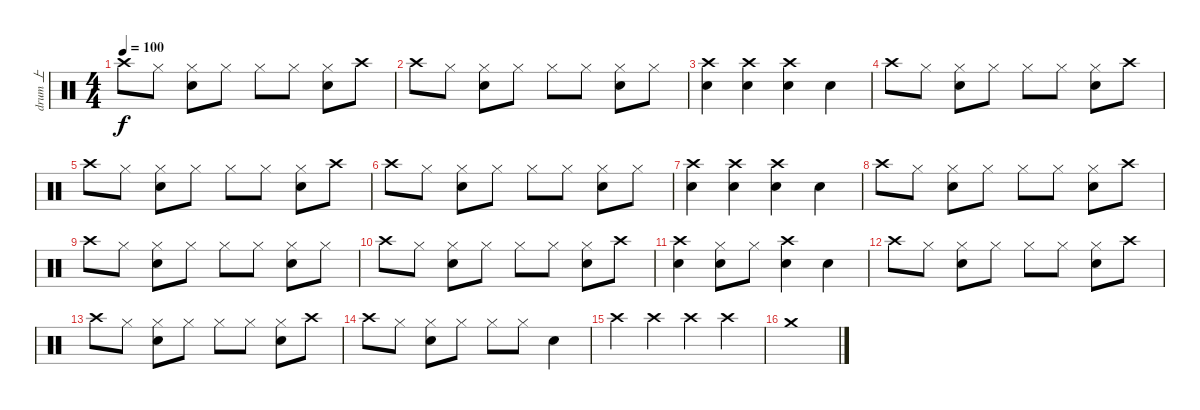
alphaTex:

\track ("drum 上" "drum 上") {instrument percussion}
\staff {score}
\articulation defaults
\ts (4 4)
\tempo 100
\clef neutral
\ks c "Crash high (hit)".8{dy f} "Hi-Hat (closed)".8
("Hi-Hat (closed)" "Snare (hit) 2").8 "Hi-Hat (closed)".8 "Hi-Hat (closed)".8 "Hi-Hat (closed)".8 ("Hi-Hat (closed)" "Snare (hit) 2").8 "Crash high (hit)".8 |
"Crash high (hit)".8 "Hi-Hat (closed)".8 ("Hi-Hat (closed)" "Snare (hit) 2").8 "Hi-Hat (closed)".8 "Hi-Hat (closed)".8 "Hi-Hat (closed)".8 ("Hi-Hat (closed)" "Snare (hit) 2").8 "Hi-Hat (closed)".8 |
("Crash high (hit)" "Snare (hit) 2").4 ("Crash high (hit)" "Snare (hit) 2").4 ("Crash high (hit)" "Snare (hit) 2").4 "Snare (hit) 2".4 |
"Crash high (hit)".8 "Hi-Hat (closed)".8 ("Hi-Hat (closed)" "Snare (hit) 2").8 "Hi-Hat (closed)".8 "Hi-Hat (closed)".8 "Hi-Hat (closed)".8 ("Hi-Hat (closed)" "Snare (hit) 2").8 "Crash high (hit)".8 |
"Crash high (hit)".8 "Hi-Hat (closed)".8 ("Hi-Hat (closed)" "Snare (hit) 2").8 "Hi-Hat (closed)".8 "Hi-Hat (closed)".8 "Hi-Hat (closed)".8 ("Hi-Hat (closed)" "Snare (hit) 2").8 "Crash high (hit)".8 |
"Crash high (hit)".8 "Hi-Hat (closed)".8 ("Hi-Hat (closed)" "Snare (hit) 2").8 "Hi-Hat (closed)".8 "Hi-Hat (closed)".8 "Hi-Hat (closed)".8 ("Hi-Hat (closed)" "Snare (hit) 2").8 "Hi-Hat (closed)".8 |
("Crash high (hit)" "Snare (hit) 2").4 ("Crash high (hit)" "Snare (hit) 2").4 ("Crash high (hit)" "Snare (hit) 2").4 "Snare (hit) 2".4 |
"Crash high (hit)".8 "Hi-Hat (closed)".8 ("Hi-Hat (closed)" "Snare (hit) 2").8 "Hi-Hat (closed)".8 "Hi-Hat (closed)".8 "Hi-Hat (closed)".8 ("Hi-Hat (closed)" "Snare (hit) 2").8 "Crash high (hit)".8 |
"Crash high (hit)".8 "Hi-Hat (closed)".8 ("Hi-Hat (closed)" "Snare (hit) 2").8 "Hi-Hat (closed)".8 "Hi-Hat (closed)".8 "Hi-Hat (closed)".8 ("Hi-Hat (closed)" "Snare (hit) 2").8 "Hi-Hat (closed)".8 |
"Crash high (hit)".8 "Hi-Hat (closed)".8 ("Hi-Hat (closed)" "Snare (hit) 2").8 "Hi-Hat (closed)".8 "Hi-Hat (closed)".8 "Hi-Hat (closed)".8 ("Hi-Hat (closed)" "Snare (hit) 2").8 "Crash high (hit)".8 |
("Crash high (hit)" "Snare (hit) 2").4 ("Hi-Hat (closed)" "Snare (hit) 2").8 "Hi-Hat (closed)".8 ("Crash high (hit)" "Snare (hit) 2").4 "Snare (hit) 2".4 |
"Crash high (hit)".8 "Hi-Hat (closed)".8 ("Hi-Hat (closed)" "Snare (hit) 2").8 "Hi-Hat (closed)".8 "Hi-Hat (closed)".8 "Hi-Hat (closed)".8 ("Hi-Hat (closed)" "Snare (hit) 2").8 "Crash high (hit)".8 |
"Crash high (hit)".8 "Hi-Hat (closed)".8 ("Hi-Hat (closed)" "Snare (hit) 2").8 "Hi-Hat (closed)".8 "Hi-Hat (closed)".8 "Hi-Hat (closed)".8 ("Hi-Hat (closed)" "Snare (hit) 2").8 "Crash high (hit)".8 |
"Crash high (hit)".8 "Hi-Hat (closed)".8 ("Hi-Hat (closed)" "Snare (hit) 2").8 "Hi-Hat (closed)".8 "Hi-Hat (closed)".8 "Hi-Hat (closed)".8 "Snare (hit) 2".4 |
"Crash high (hit)".4 "Crash high (hit)".4 "Crash high (hit)".4 "Crash high (hit)".4 |
"Crash medium (hit)".1
